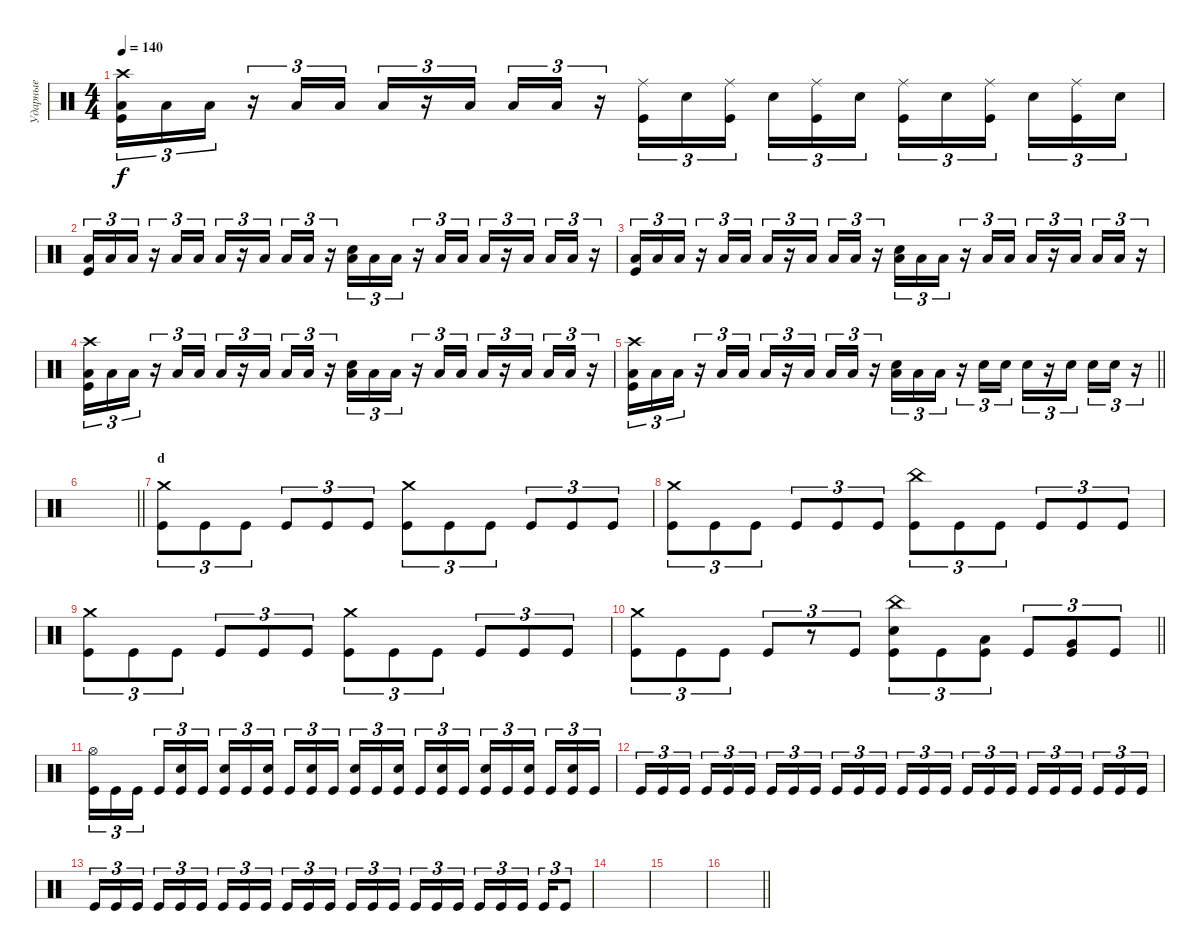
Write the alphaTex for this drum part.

\track ("Ударные" "Ударные") {instrument percussion}
\staff {score}
\articulation defaults
\ts (4 4)
\tempo 140
\clef neutral
\ks c
("Low Floor Tom (hit)" "Kick (hit)" "Crash high (hit)").16{tu (3 2) dy f} "Low Floor Tom (hit)".16{tu (3 2)} "Low Floor Tom (hit)".16{tu (3 2)} r.16{tu (3 2)} "Low Floor Tom (hit)".16{tu (3 2)} "Low Floor Tom (hit)".16{tu (3 2)} "Low Floor Tom (hit)".16{tu (3 2)} r.16{tu (3 2)} "Low Floor Tom (hit)".16{tu (3 2) beam splitsecondary} "Low Floor Tom (hit)".16{tu (3 2)} "Low Floor Tom (hit)".16{tu (3 2)} r.16{tu (3 2)} ("Ride (middle)" "Kick (hit)").16{tu (3 2)} "Electric Snare (hit)".16{tu (3 2)} ("Ride (middle)" "Kick (hit)").16{tu (3 2) beam splitsecondary} "Electric Snare (hit)".16{tu (3 2)} ("Ride (middle)" "Kick (hit)").16{tu (3 2)} "Electric Snare (hit)".16{tu (3 2)} ("Ride (middle)" "Kick (hit)").16{tu (3 2)} "Electric Snare (hit)".16{tu (3 2)} ("Ride (middle)" "Kick (hit)").16{tu (3 2) beam splitsecondary} "Electric Snare (hit)".16{tu (3 2)} ("Ride (middle)" "Kick (hit)").16{tu (3 2)} "Electric Snare (hit)".16{tu (3 2)} |
("Low Floor Tom (hit)" "Kick (hit)").16{tu (3 2)} "Low Floor Tom (hit)".16{tu (3 2)} "Low Floor Tom (hit)".16{tu (3 2)} r.16{tu (3 2)} "Low Floor Tom (hit)".16{tu (3 2)} "Low Floor Tom (hit)".16{tu (3 2)} "Low Floor Tom (hit)".16{tu (3 2)} r.16{tu (3 2)} "Low Floor Tom (hit)".16{tu (3 2) beam splitsecondary} "Low Floor Tom (hit)".16{tu (3 2)} "Low Floor Tom (hit)".16{tu (3 2)} r.16{tu (3 2)} ("Low Floor Tom (hit)" "Electric Snare (hit)").16{tu (3 2)} "Low Floor Tom (hit)".16{tu (3 2)} "Low Floor Tom (hit)".16{tu (3 2)} r.16{tu (3 2)} "Low Floor Tom (hit)".16{tu (3 2)} "Low Floor Tom (hit)".16{tu (3 2)} "Low Floor Tom (hit)".16{tu (3 2)} r.16{tu (3 2)} "Low Floor Tom (hit)".16{tu (3 2) beam splitsecondary} "Low Floor Tom (hit)".16{tu (3 2)} "Low Floor Tom (hit)".16{tu (3 2)} r.16{tu (3 2)} |
("Low Floor Tom (hit)" "Kick (hit)").16{tu (3 2)} "Low Floor Tom (hit)".16{tu (3 2)} "Low Floor Tom (hit)".16{tu (3 2)} r.16{tu (3 2)} "Low Floor Tom (hit)".16{tu (3 2)} "Low Floor Tom (hit)".16{tu (3 2)} "Low Floor Tom (hit)".16{tu (3 2)} r.16{tu (3 2)} "Low Floor Tom (hit)".16{tu (3 2) beam splitsecondary} "Low Floor Tom (hit)".16{tu (3 2)} "Low Floor Tom (hit)".16{tu (3 2)} r.16{tu (3 2)} ("Low Floor Tom (hit)" "Electric Snare (hit)").16{tu (3 2)} "Low Floor Tom (hit)".16{tu (3 2)} "Low Floor Tom (hit)".16{tu (3 2)} r.16{tu (3 2)} "Low Floor Tom (hit)".16{tu (3 2)} "Low Floor Tom (hit)".16{tu (3 2)} "Low Floor Tom (hit)".16{tu (3 2)} r.16{tu (3 2)} "Low Floor Tom (hit)".16{tu (3 2) beam splitsecondary} "Low Floor Tom (hit)".16{tu (3 2)} "Low Floor Tom (hit)".16{tu (3 2)} r.16{tu (3 2)} |
("Low Floor Tom (hit)" "Kick (hit)" "Crash high (hit)").16{tu (3 2)} "Low Floor Tom (hit)".16{tu (3 2)} "Low Floor Tom (hit)".16{tu (3 2)} r.16{tu (3 2)} "Low Floor Tom (hit)".16{tu (3 2)} "Low Floor Tom (hit)".16{tu (3 2)} "Low Floor Tom (hit)".16{tu (3 2)} r.16{tu (3 2)} "Low Floor Tom (hit)".16{tu (3 2) beam splitsecondary} "Low Floor Tom (hit)".16{tu (3 2)} "Low Floor Tom (hit)".16{tu (3 2)} r.16{tu (3 2)} ("Low Floor Tom (hit)" "Electric Snare (hit)").16{tu (3 2)} "Low Floor Tom (hit)".16{tu (3 2)} "Low Floor Tom (hit)".16{tu (3 2)} r.16{tu (3 2)} "Low Floor Tom (hit)".16{tu (3 2)} "Low Floor Tom (hit)".16{tu (3 2)} "Low Floor Tom (hit)".16{tu (3 2)} r.16{tu (3 2)} "Low Floor Tom (hit)".16{tu (3 2) beam splitsecondary} "Low Floor Tom (hit)".16{tu (3 2)} "Low Floor Tom (hit)".16{tu (3 2)} r.16{tu (3 2)} |
\barLineRight lightlight
("Low Floor Tom (hit)" "Kick (hit)" "Crash high (hit)").16{tu (3 2)} "Low Floor Tom (hit)".16{tu (3 2)} "Low Floor Tom (hit)".16{tu (3 2)} r.16{tu (3 2)} "Low Floor Tom (hit)".16{tu (3 2)} "Low Floor Tom (hit)".16{tu (3 2)} "Low Floor Tom (hit)".16{tu (3 2)} r.16{tu (3 2)} "Low Floor Tom (hit)".16{tu (3 2) beam splitsecondary} "Low Floor Tom (hit)".16{tu (3 2)} "Low Floor Tom (hit)".16{tu (3 2)} r.16{tu (3 2)} ("Low Floor Tom (hit)" "Electric Snare (hit)").16{tu (3 2)} "Low Floor Tom (hit)".16{tu (3 2)} "Low Floor Tom (hit)".16{tu (3 2)} r.16{tu (3 2)} "Electric Snare (hit)".16{tu (3 2)} "Electric Snare (hit)".16{tu (3 2)} "Electric Snare (hit)".16{tu (3 2)} r.16{tu (3 2)} "Electric Snare (hit)".16{tu (3 2) beam splitsecondary} "Electric Snare (hit)".16{tu (3 2)} "Electric Snare (hit)".16{tu (3 2)} r.16{tu (3 2)} |
\barLineRight lightlight
|
\section ("" "d")
("Crash medium (hit)" "Kick (hit)").8{tu (3 2)} "Kick (hit)".8{tu (3 2)} "Kick (hit)".8{tu (3 2)} "Kick (hit)".8{tu (3 2)} "Kick (hit)".8{tu (3 2)} "Kick (hit)".8{tu (3 2)} ("Crash medium (hit)" "Kick (hit)").8{tu (3 2)} "Kick (hit)".8{tu (3 2)} "Kick (hit)".8{tu (3 2)} "Kick (hit)".8{tu (3 2)} "Kick (hit)".8{tu (3 2)} "Kick (hit)".8{tu (3 2)} |
("Crash medium (hit)" "Kick (hit)").8{tu (3 2)} "Kick (hit)".8{tu (3 2)} "Kick (hit)".8{tu (3 2)} "Kick (hit)".8{tu (3 2)} "Kick (hit)".8{tu (3 2)} "Kick (hit)".8{tu (3 2)} ("China (hit)" "Kick (hit)").8{tu (3 2)} "Kick (hit)".8{tu (3 2)} "Kick (hit)".8{tu (3 2)} "Kick (hit)".8{tu (3 2)} "Kick (hit)".8{tu (3 2)} "Kick (hit)".8{tu (3 2)} |
("Crash medium (hit)" "Kick (hit)").8{tu (3 2)} "Kick (hit)".8{tu (3 2)} "Kick (hit)".8{tu (3 2)} "Kick (hit)".8{tu (3 2)} "Kick (hit)".8{tu (3 2)} "Kick (hit)".8{tu (3 2)} ("Crash medium (hit)" "Kick (hit)").8{tu (3 2)} "Kick (hit)".8{tu (3 2)} "Kick (hit)".8{tu (3 2)} "Kick (hit)".8{tu (3 2)} "Kick (hit)".8{tu (3 2)} "Kick (hit)".8{tu (3 2)} |
\barLineRight lightlight
("Crash medium (hit)" "Kick (hit)").8{tu (3 2)} "Kick (hit)".8{tu (3 2)} "Kick (hit)".8{tu (3 2)} "Kick (hit)".8{tu (3 2)} r.8{tu (3 2)} "Kick (hit)".8{tu (3 2)} ("China (hit)" "Electric Snare (hit)" "Kick (hit)").8{tu (3 2)} "Kick (hit)".8{tu (3 2)} ("Low Tom (hit)" "Kick (hit)").8{tu (3 2)} "Kick (hit)".8{tu (3 2)} ("Very Low Tom (hit)" "Kick (hit)").8{tu (3 2)} "Kick (hit)".8{tu (3 2)} |
("Hi-Hat (open)" "Kick (hit)").16{tu (3 2)} "Kick (hit)".16{tu (3 2)} "Kick (hit)".16{tu (3 2) beam splitsecondary} "Kick (hit)".16{tu (3 2)} ("Electric Snare (hit)" "Kick (hit)").16{tu (3 2)} "Kick (hit)".16{tu (3 2)} ("Electric Snare (hit)" "Kick (hit)").16{tu (3 2)} "Kick (hit)".16{tu (3 2)} ("Electric Snare (hit)" "Kick (hit)").16{tu (3 2) beam splitsecondary} "Kick (hit)".16{tu (3 2)} ("Electric Snare (hit)" "Kick (hit)").16{tu (3 2)} "Kick (hit)".16{tu (3 2)} ("Electric Snare (hit)" "Kick (hit)").16{tu (3 2)} "Kick (hit)".16{tu (3 2)} ("Electric Snare (hit)" "Kick (hit)").16{tu (3 2) beam splitsecondary} "Kick (hit)".16{tu (3 2)} ("Electric Snare (hit)" "Kick (hit)").16{tu (3 2)} "Kick (hit)".16{tu (3 2)} ("Electric Snare (hit)" "Kick (hit)").16{tu (3 2)} "Kick (hit)".16{tu (3 2)} ("Electric Snare (hit)" "Kick (hit)").16{tu (3 2) beam splitsecondary} "Kick (hit)".16{tu (3 2)} ("Electric Snare (hit)" "Kick (hit)").16{tu (3 2)} "Kick (hit)".16{tu (3 2)} |
"Kick (hit)".16{tu (3 2)} "Kick (hit)".16{tu (3 2)} "Kick (hit)".16{tu (3 2) beam splitsecondary} "Kick (hit)".16{tu (3 2)} "Kick (hit)".16{tu (3 2)} "Kick (hit)".16{tu (3 2)} "Kick (hit)".16{tu (3 2)} "Kick (hit)".16{tu (3 2)} "Kick (hit)".16{tu (3 2) beam splitsecondary} "Kick (hit)".16{tu (3 2)} "Kick (hit)".16{tu (3 2)} "Kick (hit)".16{tu (3 2)} "Kick (hit)".16{tu (3 2)} "Kick (hit)".16{tu (3 2)} "Kick (hit)".16{tu (3 2) beam splitsecondary} "Kick (hit)".16{tu (3 2)} "Kick (hit)".16{tu (3 2)} "Kick (hit)".16{tu (3 2)} "Kick (hit)".16{tu (3 2)} "Kick (hit)".16{tu (3 2)} "Kick (hit)".16{tu (3 2) beam splitsecondary} "Kick (hit)".16{tu (3 2)} "Kick (hit)".16{tu (3 2)} "Kick (hit)".16{tu (3 2)} |
"Kick (hit)".16{tu (3 2)} "Kick (hit)".16{tu (3 2)} "Kick (hit)".16{tu (3 2) beam splitsecondary} "Kick (hit)".16{tu (3 2)} "Kick (hit)".16{tu (3 2)} "Kick (hit)".16{tu (3 2)} "Kick (hit)".16{tu (3 2)} "Kick (hit)".16{tu (3 2)} "Kick (hit)".16{tu (3 2) beam splitsecondary} "Kick (hit)".16{tu (3 2)} "Kick (hit)".16{tu (3 2)} "Kick (hit)".16{tu (3 2)} "Kick (hit)".16{tu (3 2)} "Kick (hit)".16{tu (3 2)} "Kick (hit)".16{tu (3 2) beam splitsecondary} "Kick (hit)".16{tu (3 2)} "Kick (hit)".16{tu (3 2)} "Kick (hit)".16{tu (3 2)} "Kick (hit)".16{tu (3 2)} "Kick (hit)".16{tu (3 2)} "Kick (hit)".16{tu (3 2) beam splitsecondary} "Kick (hit)".16{tu (3 2)} "Kick (hit)".8{tu (3 2)} |
|
|
\barLineRight lightlight
